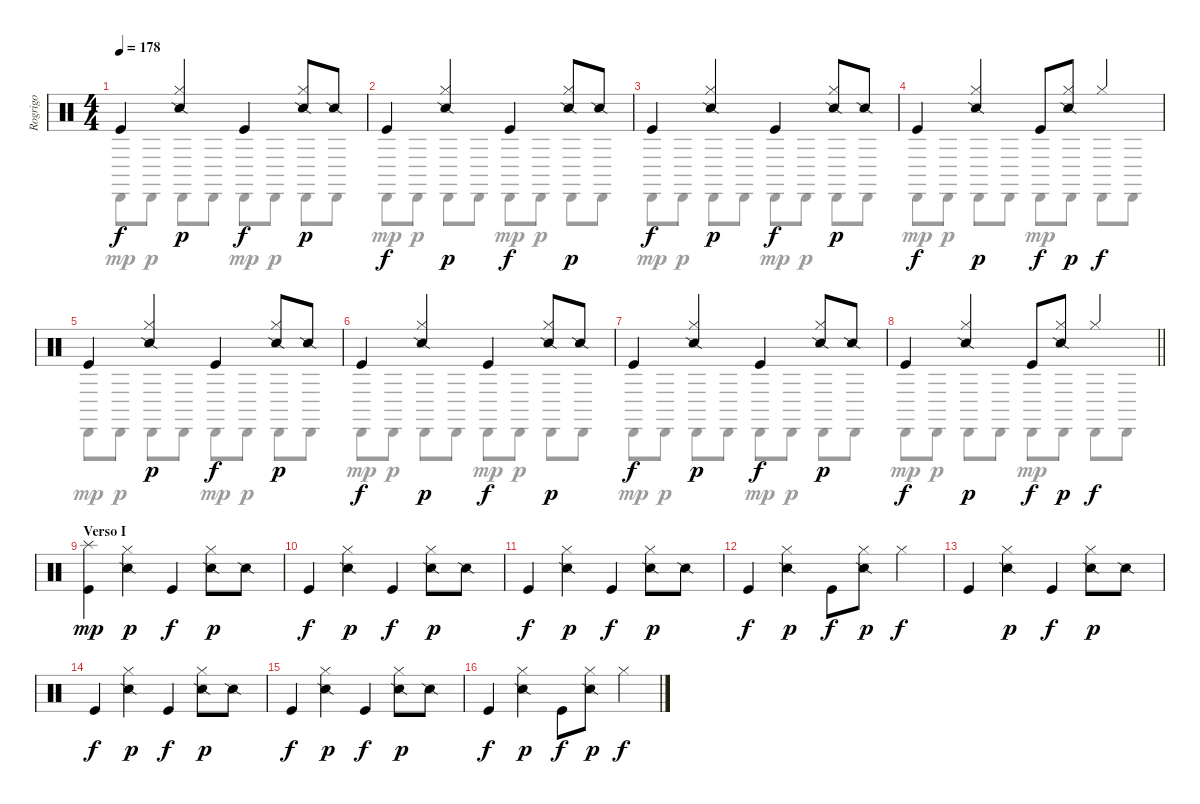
\track ("Rogrigo" "Rogrigo") {instrument percussion}
\staff {score}
\articulation defaults
\voice
\ts (4 4)
\tempo 178
\clef neutral
\ks c "Kick (hit)".4{dy f}
("Hi-Hat (closed)" "Snare (side stick) 2").4{dy p} "Kick (hit)".4{dy f} ("Hi-Hat (closed)" "Snare (side stick) 2").8{dy p} "Snare (side stick) 2".8 |
"Kick (hit)".4{dy f} ("Hi-Hat (closed)" "Snare (side stick) 2").4{dy p} "Kick (hit)".4{dy f} ("Hi-Hat (closed)" "Snare (side stick) 2").8{dy p} "Snare (side stick) 2".8 |
"Kick (hit)".4{dy f} ("Hi-Hat (closed)" "Snare (side stick) 2").4{dy p} "Kick (hit)".4{dy f} ("Hi-Hat (closed)" "Snare (side stick) 2").8{dy p} "Snare (side stick) 2".8 |
"Kick (hit)".4{dy f} ("Hi-Hat (closed)" "Snare (side stick) 2").4{dy p} "Kick (hit)".8{dy f} ("Hi-Hat (closed)" "Snare (side stick) 2").8{dy p} "Hi-Hat (closed)".4{dy f} |
"Kick (hit)".4 ("Hi-Hat (closed)" "Snare (side stick) 2").4{dy p} "Kick (hit)".4{dy f} ("Hi-Hat (closed)" "Snare (side stick) 2").8{dy p} "Snare (side stick) 2".8 |
"Kick (hit)".4{dy f} ("Hi-Hat (closed)" "Snare (side stick) 2").4{dy p} "Kick (hit)".4{dy f} ("Hi-Hat (closed)" "Snare (side stick) 2").8{dy p} "Snare (side stick) 2".8 |
"Kick (hit)".4{dy f} ("Hi-Hat (closed)" "Snare (side stick) 2").4{dy p} "Kick (hit)".4{dy f} ("Hi-Hat (closed)" "Snare (side stick) 2").8{dy p} "Snare (side stick) 2".8 |
\barLineRight lightlight "Kick (hit)".4{dy f}
("Hi-Hat (closed)" "Snare (side stick) 2").4{dy p} "Kick (hit)".8{dy f} ("Hi-Hat (closed)" "Snare (side stick) 2").8{dy p} "Hi-Hat (closed)".4{dy f} |
\section ("" "Verso I")
("Splash (hit)" "Kick (hit)").4{dy mp} ("Hi-Hat (closed)" "Snare (side stick) 2").4{dy p} "Kick (hit)".4{dy f} ("Hi-Hat (closed)" "Snare (side stick) 2").8{dy p} "Snare (side stick) 2".8 |
"Kick (hit)".4{dy f} ("Hi-Hat (closed)" "Snare (side stick) 2").4{dy p} "Kick (hit)".4{dy f} ("Hi-Hat (closed)" "Snare (side stick) 2").8{dy p} "Snare (side stick) 2".8 |
"Kick (hit)".4{dy f} ("Hi-Hat (closed)" "Snare (side stick) 2").4{dy p} "Kick (hit)".4{dy f} ("Hi-Hat (closed)" "Snare (side stick) 2").8{dy p} "Snare (side stick) 2".8 |
"Kick (hit)".4{dy f} ("Hi-Hat (closed)" "Snare (side stick) 2").4{dy p} "Kick (hit)".8{dy f} ("Hi-Hat (closed)" "Snare (side stick) 2").8{dy p} "Hi-Hat (closed)".4{dy f} |
"Kick (hit)".4 ("Hi-Hat (closed)" "Snare (side stick) 2").4{dy p} "Kick (hit)".4{dy f} ("Hi-Hat (closed)" "Snare (side stick) 2").8{dy p} "Snare (side stick) 2".8 |
"Kick (hit)".4{dy f} ("Hi-Hat (closed)" "Snare (side stick) 2").4{dy p} "Kick (hit)".4{dy f} ("Hi-Hat (closed)" "Snare (side stick) 2").8{dy p} "Snare (side stick) 2".8 |
"Kick (hit)".4{dy f} ("Hi-Hat (closed)" "Snare (side stick) 2").4{dy p} "Kick (hit)".4{dy f} ("Hi-Hat (closed)" "Snare (side stick) 2").8{dy p} "Snare (side stick) 2".8 |
"Kick (hit)".4{dy f} ("Hi-Hat (closed)" "Snare (side stick) 2").4{dy p} "Kick (hit)".8{dy f} ("Hi-Hat (closed)" "Snare (side stick) 2").8{dy p} "Hi-Hat (closed)".4{dy f}
\voice
\clef neutral
\ottava regular
\simile none
\ks c "Cabasa (hit)".8{dy mp} "Cabasa (hit)".8{dy p} "Cabasa (hit)".8 "Cabasa (hit)".8 "Cabasa (hit)".8{dy mp} "Cabasa (hit)".8{dy p} "Cabasa (hit)".8 "Cabasa (hit)".8
|
"Cabasa (hit)".8{dy mp} "Cabasa (hit)".8{dy p} "Cabasa (hit)".8 "Cabasa (hit)".8 "Cabasa (hit)".8{dy mp} "Cabasa (hit)".8{dy p} "Cabasa (hit)".8 "Cabasa (hit)".8 |
"Cabasa (hit)".8{dy mp} "Cabasa (hit)".8{dy p} "Cabasa (hit)".8 "Cabasa (hit)".8 "Cabasa (hit)".8{dy mp} "Cabasa (hit)".8{dy p} "Cabasa (hit)".8 "Cabasa (hit)".8 |
"Cabasa (hit)".8{dy mp} "Cabasa (hit)".8{dy p} "Cabasa (hit)".8 "Cabasa (hit)".8 "Cabasa (hit)".8{dy mp} "Cabasa (hit)".8{dy p} "Cabasa (hit)".8 "Cabasa (hit)".8 |
"Cabasa (hit)".8{dy mp} "Cabasa (hit)".8{dy p} "Cabasa (hit)".8 "Cabasa (hit)".8 "Cabasa (hit)".8{dy mp} "Cabasa (hit)".8{dy p} "Cabasa (hit)".8 "Cabasa (hit)".8 |
"Cabasa (hit)".8{dy mp} "Cabasa (hit)".8{dy p} "Cabasa (hit)".8 "Cabasa (hit)".8 "Cabasa (hit)".8{dy mp} "Cabasa (hit)".8{dy p} "Cabasa (hit)".8 "Cabasa (hit)".8 |
"Cabasa (hit)".8{dy mp} "Cabasa (hit)".8{dy p} "Cabasa (hit)".8 "Cabasa (hit)".8 "Cabasa (hit)".8{dy mp} "Cabasa (hit)".8{dy p} "Cabasa (hit)".8 "Cabasa (hit)".8 |
\barLineRight lightlight "Cabasa (hit)".8{dy mp} "Cabasa (hit)".8{dy p} "Cabasa (hit)".8 "Cabasa (hit)".8 "Cabasa (hit)".8{dy mp} "Cabasa (hit)".8{dy p} "Cabasa (hit)".8 "Cabasa (hit)".8
|
|
|
|
|
|
|
|
